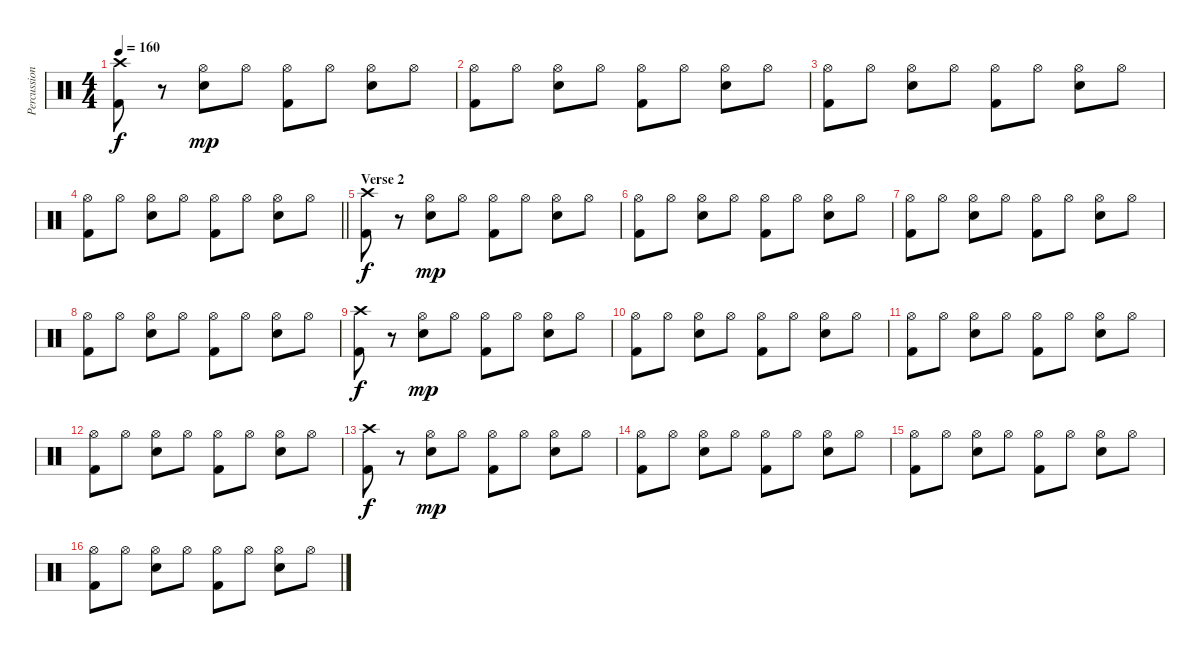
\track ("Percussion - live 1983" "Percussion") {mute instrument percussion}
\staff {score}
\articulation defaults
\ts (4 4)
\tempo 160
\clef neutral
\ks c
("Crash high (hit)" "Kick (hit) 2").8{dy f} r.8 ("Hi-Hat (open)" "Snare (hit) 2").8{dy mp} "Hi-Hat (open)".8 ("Hi-Hat (open)" "Kick (hit) 2").8 "Hi-Hat (open)".8 ("Hi-Hat (open)" "Snare (hit) 2").8 "Hi-Hat (open)".8 |
("Hi-Hat (open)" "Kick (hit) 2").8 "Hi-Hat (open)".8 ("Hi-Hat (open)" "Snare (hit) 2").8 "Hi-Hat (open)".8 ("Hi-Hat (open)" "Kick (hit) 2").8 "Hi-Hat (open)".8 ("Hi-Hat (open)" "Snare (hit) 2").8 "Hi-Hat (open)".8 |
("Hi-Hat (open)" "Kick (hit) 2").8 "Hi-Hat (open)".8 ("Hi-Hat (open)" "Snare (hit) 2").8 "Hi-Hat (open)".8 ("Hi-Hat (open)" "Kick (hit) 2").8 "Hi-Hat (open)".8 ("Hi-Hat (open)" "Snare (hit) 2").8 "Hi-Hat (open)".8 |
\barLineRight lightlight
("Hi-Hat (open)" "Kick (hit) 2").8 "Hi-Hat (open)".8 ("Hi-Hat (open)" "Snare (hit) 2").8 "Hi-Hat (open)".8 ("Hi-Hat (open)" "Kick (hit) 2").8 "Hi-Hat (open)".8 ("Hi-Hat (open)" "Snare (hit) 2").8 "Hi-Hat (open)".8 |
\section ("" "Verse 2")
("Crash high (hit)" "Kick (hit) 2").8{dy f} r.8 ("Hi-Hat (open)" "Snare (hit) 2").8{dy mp} "Hi-Hat (open)".8 ("Hi-Hat (open)" "Kick (hit) 2").8 "Hi-Hat (open)".8 ("Hi-Hat (open)" "Snare (hit) 2").8 "Hi-Hat (open)".8 |
("Hi-Hat (open)" "Kick (hit) 2").8 "Hi-Hat (open)".8 ("Hi-Hat (open)" "Snare (hit) 2").8 "Hi-Hat (open)".8 ("Hi-Hat (open)" "Kick (hit) 2").8 "Hi-Hat (open)".8 ("Hi-Hat (open)" "Snare (hit) 2").8 "Hi-Hat (open)".8 |
("Hi-Hat (open)" "Kick (hit) 2").8 "Hi-Hat (open)".8 ("Hi-Hat (open)" "Snare (hit) 2").8 "Hi-Hat (open)".8 ("Hi-Hat (open)" "Kick (hit) 2").8 "Hi-Hat (open)".8 ("Hi-Hat (open)" "Snare (hit) 2").8 "Hi-Hat (open)".8 |
("Hi-Hat (open)" "Kick (hit) 2").8 "Hi-Hat (open)".8 ("Hi-Hat (open)" "Snare (hit) 2").8 "Hi-Hat (open)".8 ("Hi-Hat (open)" "Kick (hit) 2").8 "Hi-Hat (open)".8 ("Hi-Hat (open)" "Snare (hit) 2").8 "Hi-Hat (open)".8 |
("Crash high (hit)" "Kick (hit) 2").8{dy f} r.8 ("Hi-Hat (open)" "Snare (hit) 2").8{dy mp} "Hi-Hat (open)".8 ("Hi-Hat (open)" "Kick (hit) 2").8 "Hi-Hat (open)".8 ("Hi-Hat (open)" "Snare (hit) 2").8 "Hi-Hat (open)".8 |
("Hi-Hat (open)" "Kick (hit) 2").8 "Hi-Hat (open)".8 ("Hi-Hat (open)" "Snare (hit) 2").8 "Hi-Hat (open)".8 ("Hi-Hat (open)" "Kick (hit) 2").8 "Hi-Hat (open)".8 ("Hi-Hat (open)" "Snare (hit) 2").8 "Hi-Hat (open)".8 |
("Hi-Hat (open)" "Kick (hit) 2").8 "Hi-Hat (open)".8 ("Hi-Hat (open)" "Snare (hit) 2").8 "Hi-Hat (open)".8 ("Hi-Hat (open)" "Kick (hit) 2").8 "Hi-Hat (open)".8 ("Hi-Hat (open)" "Snare (hit) 2").8 "Hi-Hat (open)".8 |
("Hi-Hat (open)" "Kick (hit) 2").8 "Hi-Hat (open)".8 ("Hi-Hat (open)" "Snare (hit) 2").8 "Hi-Hat (open)".8 ("Hi-Hat (open)" "Kick (hit) 2").8 "Hi-Hat (open)".8 ("Hi-Hat (open)" "Snare (hit) 2").8 "Hi-Hat (open)".8 |
("Crash high (hit)" "Kick (hit) 2").8{dy f} r.8 ("Hi-Hat (open)" "Snare (hit) 2").8{dy mp} "Hi-Hat (open)".8 ("Hi-Hat (open)" "Kick (hit) 2").8 "Hi-Hat (open)".8 ("Hi-Hat (open)" "Snare (hit) 2").8 "Hi-Hat (open)".8 |
("Hi-Hat (open)" "Kick (hit) 2").8 "Hi-Hat (open)".8 ("Hi-Hat (open)" "Snare (hit) 2").8 "Hi-Hat (open)".8 ("Hi-Hat (open)" "Kick (hit) 2").8 "Hi-Hat (open)".8 ("Hi-Hat (open)" "Snare (hit) 2").8 "Hi-Hat (open)".8 |
("Hi-Hat (open)" "Kick (hit) 2").8 "Hi-Hat (open)".8 ("Hi-Hat (open)" "Snare (hit) 2").8 "Hi-Hat (open)".8 ("Hi-Hat (open)" "Kick (hit) 2").8 "Hi-Hat (open)".8 ("Hi-Hat (open)" "Snare (hit) 2").8 "Hi-Hat (open)".8 |
("Hi-Hat (open)" "Kick (hit) 2").8 "Hi-Hat (open)".8 ("Hi-Hat (open)" "Snare (hit) 2").8 "Hi-Hat (open)".8 ("Hi-Hat (open)" "Kick (hit) 2").8 "Hi-Hat (open)".8 ("Hi-Hat (open)" "Snare (hit) 2").8 "Hi-Hat (open)".8
